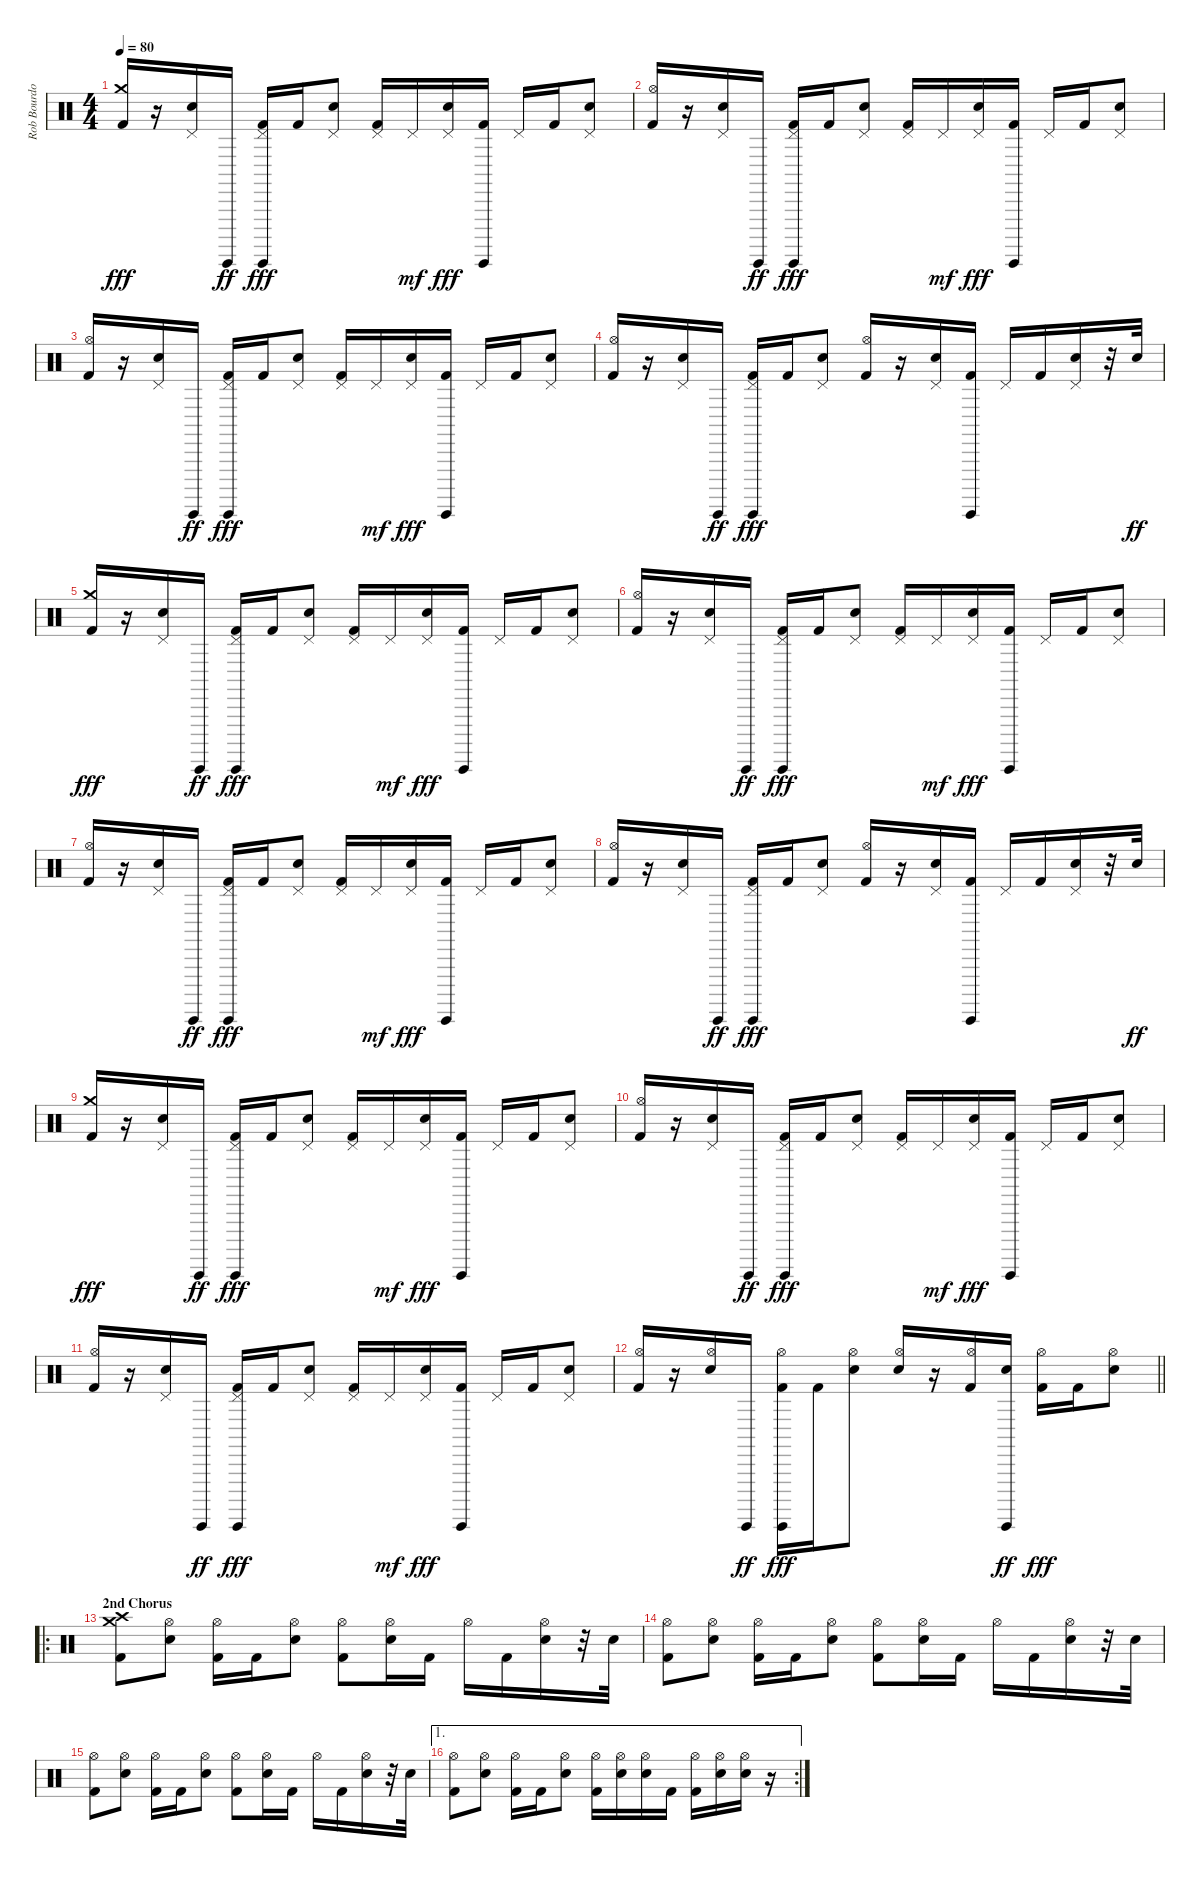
\track ("Rob Bourdon (Batteria)" "Rob Bourdo") {instrument percussion}
\staff {score}
\articulation defaults
\ts (4 4)
\tempo 80
\clef neutral
\ks c
("Crash medium (hit)" "Kick (hit) 2").16{dy fff} r.16 ("Pedal Hi-Hat (hit)" "Electric Snare (hit)").16 "Guiro (hit)".16{dy ff} ("Guiro (hit)" "Pedal Hi-Hat (hit)" "Kick (hit) 2").16{dy fff} "Kick (hit) 2".16 ("Pedal Hi-Hat (hit)" "Electric Snare (hit)").8 ("Pedal Hi-Hat (hit)" "Kick (hit) 2").16 "Pedal Hi-Hat (hit)".16{dy mf} ("Pedal Hi-Hat (hit)" "Electric Snare (hit)").16{dy fff} ("Guiro (hit)" "Kick (hit) 2").16 "Pedal Hi-Hat (hit)".16 "Kick (hit) 2".16 ("Pedal Hi-Hat (hit)" "Electric Snare (hit)").8 |
("Hi-Hat (open)" "Kick (hit) 2").16 r.16 ("Pedal Hi-Hat (hit)" "Electric Snare (hit)").16 "Guiro (hit)".16{dy ff} ("Guiro (hit)" "Pedal Hi-Hat (hit)" "Kick (hit) 2").16{dy fff} "Kick (hit) 2".16 ("Pedal Hi-Hat (hit)" "Electric Snare (hit)").8 ("Pedal Hi-Hat (hit)" "Kick (hit) 2").16 "Pedal Hi-Hat (hit)".16{dy mf} ("Pedal Hi-Hat (hit)" "Electric Snare (hit)").16{dy fff} ("Guiro (hit)" "Kick (hit) 2").16 "Pedal Hi-Hat (hit)".16 "Kick (hit) 2".16 ("Pedal Hi-Hat (hit)" "Electric Snare (hit)").8 |
("Hi-Hat (open)" "Kick (hit) 2").16 r.16 ("Pedal Hi-Hat (hit)" "Electric Snare (hit)").16 "Guiro (hit)".16{dy ff} ("Guiro (hit)" "Pedal Hi-Hat (hit)" "Kick (hit) 2").16{dy fff} "Kick (hit) 2".16 ("Pedal Hi-Hat (hit)" "Electric Snare (hit)").8 ("Pedal Hi-Hat (hit)" "Kick (hit) 2").16 "Pedal Hi-Hat (hit)".16{dy mf} ("Pedal Hi-Hat (hit)" "Electric Snare (hit)").16{dy fff} ("Guiro (hit)" "Kick (hit) 2").16 "Pedal Hi-Hat (hit)".16 "Kick (hit) 2".16 ("Pedal Hi-Hat (hit)" "Electric Snare (hit)").8 |
("Hi-Hat (open)" "Kick (hit) 2").16 r.16 ("Pedal Hi-Hat (hit)" "Electric Snare (hit)").16 "Guiro (hit)".16{dy ff} ("Guiro (hit)" "Pedal Hi-Hat (hit)" "Kick (hit) 2").16{dy fff} "Kick (hit) 2".16 ("Pedal Hi-Hat (hit)" "Electric Snare (hit)").8 ("Hi-Hat (open)" "Kick (hit) 2").16 r.16 ("Pedal Hi-Hat (hit)" "Electric Snare (hit)").16 ("Guiro (hit)" "Kick (hit) 2").16 "Pedal Hi-Hat (hit)".16 "Kick (hit) 2".16 ("Pedal Hi-Hat (hit)" "Electric Snare (hit)").16 r.32 "Electric Snare (hit)".32{dy ff} |
("Crash medium (hit)" "Kick (hit) 2").16{dy fff} r.16 ("Pedal Hi-Hat (hit)" "Electric Snare (hit)").16 "Guiro (hit)".16{dy ff} ("Guiro (hit)" "Pedal Hi-Hat (hit)" "Kick (hit) 2").16{dy fff} "Kick (hit) 2".16 ("Pedal Hi-Hat (hit)" "Electric Snare (hit)").8 ("Pedal Hi-Hat (hit)" "Kick (hit) 2").16 "Pedal Hi-Hat (hit)".16{dy mf} ("Pedal Hi-Hat (hit)" "Electric Snare (hit)").16{dy fff} ("Guiro (hit)" "Kick (hit) 2").16 "Pedal Hi-Hat (hit)".16 "Kick (hit) 2".16 ("Pedal Hi-Hat (hit)" "Electric Snare (hit)").8 |
("Hi-Hat (open)" "Kick (hit) 2").16 r.16 ("Pedal Hi-Hat (hit)" "Electric Snare (hit)").16 "Guiro (hit)".16{dy ff} ("Guiro (hit)" "Pedal Hi-Hat (hit)" "Kick (hit) 2").16{dy fff} "Kick (hit) 2".16 ("Pedal Hi-Hat (hit)" "Electric Snare (hit)").8 ("Pedal Hi-Hat (hit)" "Kick (hit) 2").16 "Pedal Hi-Hat (hit)".16{dy mf} ("Pedal Hi-Hat (hit)" "Electric Snare (hit)").16{dy fff} ("Guiro (hit)" "Kick (hit) 2").16 "Pedal Hi-Hat (hit)".16 "Kick (hit) 2".16 ("Pedal Hi-Hat (hit)" "Electric Snare (hit)").8 |
("Hi-Hat (open)" "Kick (hit) 2").16 r.16 ("Pedal Hi-Hat (hit)" "Electric Snare (hit)").16 "Guiro (hit)".16{dy ff} ("Guiro (hit)" "Pedal Hi-Hat (hit)" "Kick (hit) 2").16{dy fff} "Kick (hit) 2".16 ("Pedal Hi-Hat (hit)" "Electric Snare (hit)").8 ("Pedal Hi-Hat (hit)" "Kick (hit) 2").16 "Pedal Hi-Hat (hit)".16{dy mf} ("Pedal Hi-Hat (hit)" "Electric Snare (hit)").16{dy fff} ("Guiro (hit)" "Kick (hit) 2").16 "Pedal Hi-Hat (hit)".16 "Kick (hit) 2".16 ("Pedal Hi-Hat (hit)" "Electric Snare (hit)").8 |
("Hi-Hat (open)" "Kick (hit) 2").16 r.16 ("Pedal Hi-Hat (hit)" "Electric Snare (hit)").16 "Guiro (hit)".16{dy ff} ("Guiro (hit)" "Pedal Hi-Hat (hit)" "Kick (hit) 2").16{dy fff} "Kick (hit) 2".16 ("Pedal Hi-Hat (hit)" "Electric Snare (hit)").8 ("Hi-Hat (open)" "Kick (hit) 2").16 r.16 ("Pedal Hi-Hat (hit)" "Electric Snare (hit)").16 ("Guiro (hit)" "Kick (hit) 2").16 "Pedal Hi-Hat (hit)".16 "Kick (hit) 2".16 ("Pedal Hi-Hat (hit)" "Electric Snare (hit)").16 r.32 "Electric Snare (hit)".32{dy ff} |
("Crash medium (hit)" "Kick (hit) 2").16{dy fff} r.16 ("Pedal Hi-Hat (hit)" "Electric Snare (hit)").16 "Guiro (hit)".16{dy ff} ("Guiro (hit)" "Pedal Hi-Hat (hit)" "Kick (hit) 2").16{dy fff} "Kick (hit) 2".16 ("Pedal Hi-Hat (hit)" "Electric Snare (hit)").8 ("Pedal Hi-Hat (hit)" "Kick (hit) 2").16 "Pedal Hi-Hat (hit)".16{dy mf} ("Pedal Hi-Hat (hit)" "Electric Snare (hit)").16{dy fff} ("Guiro (hit)" "Kick (hit) 2").16 "Pedal Hi-Hat (hit)".16 "Kick (hit) 2".16 ("Pedal Hi-Hat (hit)" "Electric Snare (hit)").8 |
("Hi-Hat (open)" "Kick (hit) 2").16 r.16 ("Pedal Hi-Hat (hit)" "Electric Snare (hit)").16 "Guiro (hit)".16{dy ff} ("Guiro (hit)" "Pedal Hi-Hat (hit)" "Kick (hit) 2").16{dy fff} "Kick (hit) 2".16 ("Pedal Hi-Hat (hit)" "Electric Snare (hit)").8 ("Pedal Hi-Hat (hit)" "Kick (hit) 2").16 "Pedal Hi-Hat (hit)".16{dy mf} ("Pedal Hi-Hat (hit)" "Electric Snare (hit)").16{dy fff} ("Guiro (hit)" "Kick (hit) 2").16 "Pedal Hi-Hat (hit)".16 "Kick (hit) 2".16 ("Pedal Hi-Hat (hit)" "Electric Snare (hit)").8 |
("Hi-Hat (open)" "Kick (hit) 2").16 r.16 ("Pedal Hi-Hat (hit)" "Electric Snare (hit)").16 "Guiro (hit)".16{dy ff} ("Guiro (hit)" "Pedal Hi-Hat (hit)" "Kick (hit) 2").16{dy fff} "Kick (hit) 2".16 ("Pedal Hi-Hat (hit)" "Electric Snare (hit)").8 ("Pedal Hi-Hat (hit)" "Kick (hit) 2").16 "Pedal Hi-Hat (hit)".16{dy mf} ("Pedal Hi-Hat (hit)" "Electric Snare (hit)").16{dy fff} ("Guiro (hit)" "Kick (hit) 2").16 "Pedal Hi-Hat (hit)".16 "Kick (hit) 2".16 ("Pedal Hi-Hat (hit)" "Electric Snare (hit)").8 |
\barLineRight lightlight
("Hi-Hat (open)" "Kick (hit) 2").16 r.16 ("Hi-Hat (open)" "Electric Snare (hit)").16 "Guiro (hit)".16{dy ff} ("Guiro (hit)" "Hi-Hat (open)" "Kick (hit) 2").16{dy fff} "Kick (hit) 2".16 ("Hi-Hat (open)" "Electric Snare (hit)").8 ("Hi-Hat (open)" "Electric Snare (hit)").16 r.16 ("Hi-Hat (open)" "Kick (hit) 2").16 ("Guiro (hit)" "Electric Snare (hit)").16{dy ff} ("Hi-Hat (open)" "Kick (hit) 2").16{dy fff} "Kick (hit) 2".16 ("Hi-Hat (open)" "Electric Snare (hit)").8 |
\ro
\section ("" "2nd Chorus")
("Crash medium (hit)" "Crash high (hit)" "Kick (hit) 2").8 ("Hi-Hat (open)" "Electric Snare (hit)").8 ("Hi-Hat (open)" "Kick (hit) 2").16 "Kick (hit) 2".16 ("Hi-Hat (open)" "Electric Snare (hit)").8 ("Hi-Hat (open)" "Kick (hit) 2").8 ("Hi-Hat (open)" "Electric Snare (hit)").16 "Kick (hit) 2".16 "Hi-Hat (open)".16 "Kick (hit) 2".16 ("Hi-Hat (open)" "Electric Snare (hit)").16 r.32 "Electric Snare (hit)".32 |
("Hi-Hat (open)" "Kick (hit) 2").8 ("Hi-Hat (open)" "Electric Snare (hit)").8 ("Hi-Hat (open)" "Kick (hit) 2").16 "Kick (hit) 2".16 ("Hi-Hat (open)" "Electric Snare (hit)").8 ("Hi-Hat (open)" "Kick (hit) 2").8 ("Hi-Hat (open)" "Electric Snare (hit)").16 "Kick (hit) 2".16 "Hi-Hat (open)".16 "Kick (hit) 2".16 ("Hi-Hat (open)" "Electric Snare (hit)").16 r.32 "Electric Snare (hit)".32 |
("Hi-Hat (open)" "Kick (hit) 2").8 ("Hi-Hat (open)" "Electric Snare (hit)").8 ("Hi-Hat (open)" "Kick (hit) 2").16 "Kick (hit) 2".16 ("Hi-Hat (open)" "Electric Snare (hit)").8 ("Hi-Hat (open)" "Kick (hit) 2").8 ("Hi-Hat (open)" "Electric Snare (hit)").16 "Kick (hit) 2".16 "Hi-Hat (open)".16 "Kick (hit) 2".16 ("Hi-Hat (open)" "Electric Snare (hit)").16 r.32 "Electric Snare (hit)".32 |
\ae 1
\rc 2
("Hi-Hat (open)" "Kick (hit) 2").8 ("Hi-Hat (open)" "Electric Snare (hit)").8 ("Hi-Hat (open)" "Kick (hit) 2").16 "Kick (hit) 2".16 ("Hi-Hat (open)" "Electric Snare (hit)").8 ("Hi-Hat (open)" "Kick (hit) 2").16 ("Hi-Hat (open)" "Electric Snare (hit)").16 ("Hi-Hat (open)" "Electric Snare (hit)").16 "Kick (hit) 2".16 ("Hi-Hat (open)" "Kick (hit) 2").16 ("Hi-Hat (open)" "Electric Snare (hit)").16 ("Hi-Hat (open)" "Electric Snare (hit)").16 r.16
